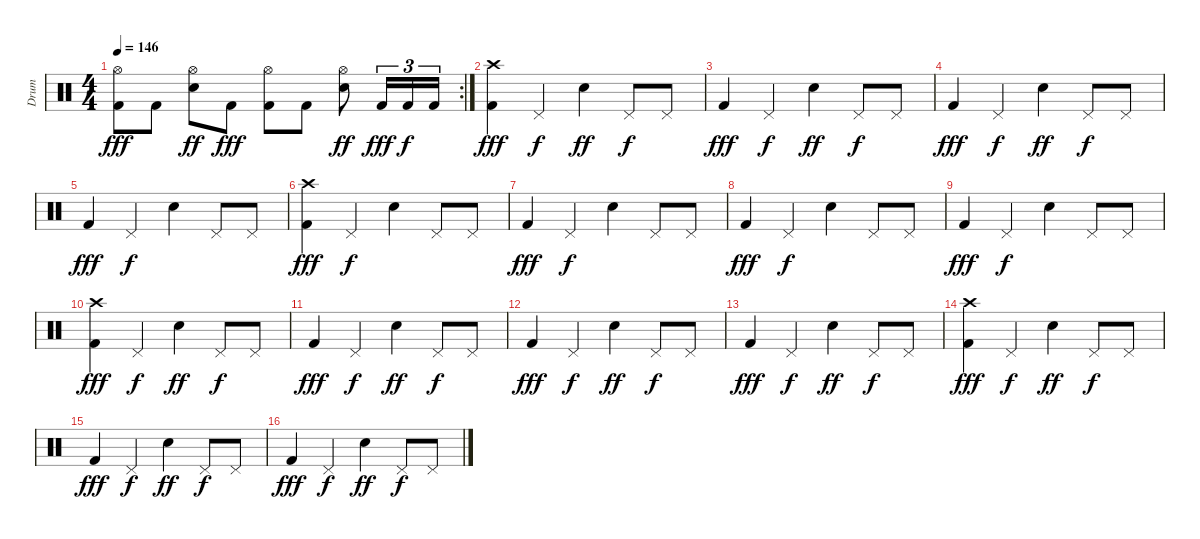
\track ("Drum" "Drum") {instrument percussion}
\staff {score}
\articulation defaults
\rc 2
\ts (4 4)
\tempo 146
\clef neutral
\ks c
("Kick (hit) 2" "Hi-Hat (open)").8{dy fff} "Kick (hit) 2".8 ("Electric Snare (hit)" "Hi-Hat (open)").8{dy ff} "Kick (hit) 2".8{dy fff} ("Kick (hit) 2" "Hi-Hat (open)").8 "Kick (hit) 2".8 ("Electric Snare (hit)" "Hi-Hat (open)").8{dy ff} "Kick (hit) 2".16{tu (3 2) dy fff} "Kick (hit) 2".16{tu (3 2) dy f} "Kick (hit) 2".16{tu (3 2)} |
("Crash high (hit)" "Kick (hit) 2").4{dy fff} "Pedal Hi-Hat (hit)".4{dy f} "Electric Snare (hit)".4{dy ff} "Pedal Hi-Hat (hit)".8{dy f} "Pedal Hi-Hat (hit)".8 |
"Kick (hit) 2".4{dy fff} "Pedal Hi-Hat (hit)".4{dy f} "Electric Snare (hit)".4{dy ff} "Pedal Hi-Hat (hit)".8{dy f} "Pedal Hi-Hat (hit)".8 |
"Kick (hit) 2".4{dy fff} "Pedal Hi-Hat (hit)".4{dy f} "Electric Snare (hit)".4{dy ff} "Pedal Hi-Hat (hit)".8{dy f} "Pedal Hi-Hat (hit)".8 |
"Kick (hit) 2".4{dy fff} "Pedal Hi-Hat (hit)".4{dy f} "Electric Snare (hit)".4 "Pedal Hi-Hat (hit)".8 "Pedal Hi-Hat (hit)".8 |
("Crash high (hit)" "Kick (hit) 2").4{dy fff} "Pedal Hi-Hat (hit)".4{dy f} "Electric Snare (hit)".4 "Pedal Hi-Hat (hit)".8 "Pedal Hi-Hat (hit)".8 |
"Kick (hit) 2".4{dy fff} "Pedal Hi-Hat (hit)".4{dy f} "Electric Snare (hit)".4 "Pedal Hi-Hat (hit)".8 "Pedal Hi-Hat (hit)".8 |
"Kick (hit) 2".4{dy fff} "Pedal Hi-Hat (hit)".4{dy f} "Electric Snare (hit)".4 "Pedal Hi-Hat (hit)".8 "Pedal Hi-Hat (hit)".8 |
"Kick (hit) 2".4{dy fff} "Pedal Hi-Hat (hit)".4{dy f} "Electric Snare (hit)".4 "Pedal Hi-Hat (hit)".8 "Pedal Hi-Hat (hit)".8 |
("Crash high (hit)" "Kick (hit) 2").4{dy fff} "Pedal Hi-Hat (hit)".4{dy f} "Electric Snare (hit)".4{dy ff} "Pedal Hi-Hat (hit)".8{dy f} "Pedal Hi-Hat (hit)".8 |
"Kick (hit) 2".4{dy fff} "Pedal Hi-Hat (hit)".4{dy f} "Electric Snare (hit)".4{dy ff} "Pedal Hi-Hat (hit)".8{dy f} "Pedal Hi-Hat (hit)".8 |
"Kick (hit) 2".4{dy fff} "Pedal Hi-Hat (hit)".4{dy f} "Electric Snare (hit)".4{dy ff} "Pedal Hi-Hat (hit)".8{dy f} "Pedal Hi-Hat (hit)".8 |
"Kick (hit) 2".4{dy fff} "Pedal Hi-Hat (hit)".4{dy f} "Electric Snare (hit)".4{dy ff} "Pedal Hi-Hat (hit)".8{dy f} "Pedal Hi-Hat (hit)".8 |
("Crash high (hit)" "Kick (hit) 2").4{dy fff} "Pedal Hi-Hat (hit)".4{dy f} "Electric Snare (hit)".4{dy ff} "Pedal Hi-Hat (hit)".8{dy f} "Pedal Hi-Hat (hit)".8 |
"Kick (hit) 2".4{dy fff} "Pedal Hi-Hat (hit)".4{dy f} "Electric Snare (hit)".4{dy ff} "Pedal Hi-Hat (hit)".8{dy f} "Pedal Hi-Hat (hit)".8 |
"Kick (hit) 2".4{dy fff} "Pedal Hi-Hat (hit)".4{dy f} "Electric Snare (hit)".4{dy ff} "Pedal Hi-Hat (hit)".8{dy f} "Pedal Hi-Hat (hit)".8
